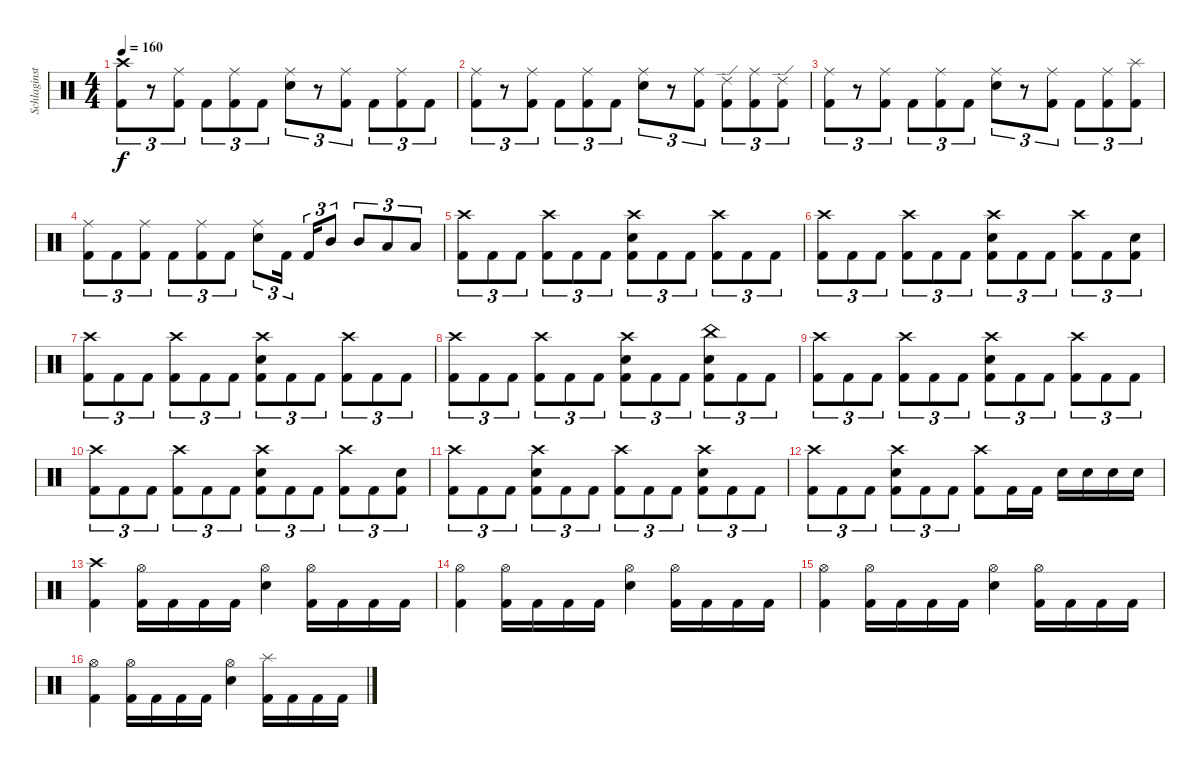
\track ("Schlaginstrumente - Auswahl" "Schlaginst") {instrument percussion}
\staff {score}
\articulation defaults
\ts (4 4)
\tempo 160
\clef neutral
\ks c
("Crash high (hit)" "Kick (hit) 2").8{tu (3 2) dy f} r.8{tu (3 2)} ("Ride (middle)" "Kick (hit) 2").8{tu (3 2)} "Kick (hit) 2".8{tu (3 2)} ("Ride (middle)" "Kick (hit) 2").8{tu (3 2)} "Kick (hit) 2".8{tu (3 2)} ("Ride (middle)" "Snare (hit) 2").8{tu (3 2)} r.8{tu (3 2)} ("Ride (middle)" "Kick (hit) 2").8{tu (3 2)} "Kick (hit) 2".8{tu (3 2)} ("Ride (middle)" "Kick (hit) 2").8{tu (3 2)} "Kick (hit) 2".8{tu (3 2)} |
("Ride (middle)" "Kick (hit) 2").8{tu (3 2)} r.8{tu (3 2)} ("Ride (middle)" "Kick (hit) 2").8{tu (3 2)} "Kick (hit) 2".8{tu (3 2)} ("Ride (middle)" "Kick (hit) 2").8{tu (3 2)} "Kick (hit) 2".8{tu (3 2)} ("Ride (middle)" "Snare (hit) 2").8{tu (3 2)} r.8{tu (3 2)} ("Ride (middle)" "Kick (hit) 2").8{tu (3 2)} ("Ride (edge) 2" "Kick (hit) 2").8{tu (3 2)} ("Ride (middle)" "Kick (hit) 2").8{tu (3 2)} ("Ride (edge) 2" "Kick (hit) 2").8{tu (3 2)} |
("Ride (middle)" "Kick (hit) 2").8{tu (3 2)} r.8{tu (3 2)} ("Ride (middle)" "Kick (hit) 2").8{tu (3 2)} "Kick (hit) 2".8{tu (3 2)} ("Ride (middle)" "Kick (hit) 2").8{tu (3 2)} "Kick (hit) 2".8{tu (3 2)} ("Ride (middle)" "Snare (hit) 2").8{tu (3 2)} r.8{tu (3 2)} ("Ride (middle)" "Kick (hit) 2").8{tu (3 2)} "Kick (hit) 2".8{tu (3 2)} ("Ride (middle)" "Kick (hit) 2").8{tu (3 2)} ("Splash (hit)" "Kick (hit) 2").8{tu (3 2)} |
("Ride (middle)" "Kick (hit) 2").8{tu (3 2)} "Kick (hit) 2".8{tu (3 2)} ("Ride (middle)" "Kick (hit) 2").8{tu (3 2)} "Kick (hit) 2".8{tu (3 2)} ("Ride (middle)" "Kick (hit) 2").8{tu (3 2)} "Kick (hit) 2".8{tu (3 2)} ("Ride (middle)" "Snare (hit) 2").8{tu (3 2)} "Kick (hit) 2".16{tu (3 2) beam splitsecondary} "Kick (hit) 2".16{tu (3 2)} "Mid Tom (hit)".8{tu (3 2)} "Mid Tom (hit)".8{tu (3 2)} "Low Tom (hit)".8{tu (3 2)} "Low Tom (hit)".8{tu (3 2)} |
("Crash high (hit)" "Kick (hit) 2").8{tu (3 2)} "Kick (hit) 2".8{tu (3 2)} "Kick (hit) 2".8{tu (3 2)} ("Crash high (hit)" "Kick (hit) 2").8{tu (3 2)} "Kick (hit) 2".8{tu (3 2)} "Kick (hit) 2".8{tu (3 2)} ("Crash high (hit)" "Snare (hit) 2" "Kick (hit) 2").8{tu (3 2)} "Kick (hit) 2".8{tu (3 2)} "Kick (hit) 2".8{tu (3 2)} ("Crash high (hit)" "Kick (hit) 2").8{tu (3 2)} "Kick (hit) 2".8{tu (3 2)} "Kick (hit) 2".8{tu (3 2)} |
("Crash high (hit)" "Kick (hit) 2").8{tu (3 2)} "Kick (hit) 2".8{tu (3 2)} "Kick (hit) 2".8{tu (3 2)} ("Crash high (hit)" "Kick (hit) 2").8{tu (3 2)} "Kick (hit) 2".8{tu (3 2)} "Kick (hit) 2".8{tu (3 2)} ("Crash high (hit)" "Snare (hit) 2" "Kick (hit) 2").8{tu (3 2)} "Kick (hit) 2".8{tu (3 2)} "Kick (hit) 2".8{tu (3 2)} ("Crash high (hit)" "Kick (hit) 2").8{tu (3 2)} "Kick (hit) 2".8{tu (3 2)} ("Snare (hit) 2" "Kick (hit) 2").8{tu (3 2)} |
("Crash high (hit)" "Kick (hit) 2").8{tu (3 2)} "Kick (hit) 2".8{tu (3 2)} "Kick (hit) 2".8{tu (3 2)} ("Crash high (hit)" "Kick (hit) 2").8{tu (3 2)} "Kick (hit) 2".8{tu (3 2)} "Kick (hit) 2".8{tu (3 2)} ("Crash high (hit)" "Snare (hit) 2" "Kick (hit) 2").8{tu (3 2)} "Kick (hit) 2".8{tu (3 2)} "Kick (hit) 2".8{tu (3 2)} ("Crash high (hit)" "Kick (hit) 2").8{tu (3 2)} "Kick (hit) 2".8{tu (3 2)} "Kick (hit) 2".8{tu (3 2)} |
("Crash high (hit)" "Kick (hit) 2").8{tu (3 2)} "Kick (hit) 2".8{tu (3 2)} "Kick (hit) 2".8{tu (3 2)} ("Crash high (hit)" "Kick (hit) 2").8{tu (3 2)} "Kick (hit) 2".8{tu (3 2)} "Kick (hit) 2".8{tu (3 2)} ("Crash high (hit)" "Snare (hit) 2" "Kick (hit) 2").8{tu (3 2)} "Kick (hit) 2".8{tu (3 2)} "Kick (hit) 2".8{tu (3 2)} ("China (hit)" "Snare (hit) 2" "Kick (hit) 2").8{tu (3 2)} "Kick (hit) 2".8{tu (3 2)} "Kick (hit) 2".8{tu (3 2)} |
("Crash high (hit)" "Kick (hit) 2").8{tu (3 2)} "Kick (hit) 2".8{tu (3 2)} "Kick (hit) 2".8{tu (3 2)} ("Crash high (hit)" "Kick (hit) 2").8{tu (3 2)} "Kick (hit) 2".8{tu (3 2)} "Kick (hit) 2".8{tu (3 2)} ("Crash high (hit)" "Snare (hit) 2" "Kick (hit) 2").8{tu (3 2)} "Kick (hit) 2".8{tu (3 2)} "Kick (hit) 2".8{tu (3 2)} ("Crash high (hit)" "Kick (hit) 2").8{tu (3 2)} "Kick (hit) 2".8{tu (3 2)} "Kick (hit) 2".8{tu (3 2)} |
("Crash high (hit)" "Kick (hit) 2").8{tu (3 2)} "Kick (hit) 2".8{tu (3 2)} "Kick (hit) 2".8{tu (3 2)} ("Crash high (hit)" "Kick (hit) 2").8{tu (3 2)} "Kick (hit) 2".8{tu (3 2)} "Kick (hit) 2".8{tu (3 2)} ("Crash high (hit)" "Snare (hit) 2" "Kick (hit) 2").8{tu (3 2)} "Kick (hit) 2".8{tu (3 2)} "Kick (hit) 2".8{tu (3 2)} ("Crash high (hit)" "Kick (hit) 2").8{tu (3 2)} "Kick (hit) 2".8{tu (3 2)} ("Snare (hit) 2" "Kick (hit) 2").8{tu (3 2)} |
("Crash high (hit)" "Kick (hit) 2").8{tu (3 2)} "Kick (hit) 2".8{tu (3 2)} "Kick (hit) 2".8{tu (3 2)} ("Crash high (hit)" "Snare (hit) 2" "Kick (hit) 2").8{tu (3 2)} "Kick (hit) 2".8{tu (3 2)} "Kick (hit) 2".8{tu (3 2)} ("Crash high (hit)" "Kick (hit) 2").8{tu (3 2)} "Kick (hit) 2".8{tu (3 2)} "Kick (hit) 2".8{tu (3 2)} ("Crash high (hit)" "Snare (hit) 2" "Kick (hit) 2").8{tu (3 2)} "Kick (hit) 2".8{tu (3 2)} "Kick (hit) 2".8{tu (3 2)} |
("Crash high (hit)" "Kick (hit) 2").8{tu (3 2)} "Kick (hit) 2".8{tu (3 2)} "Kick (hit) 2".8{tu (3 2)} ("Crash high (hit)" "Snare (hit) 2" "Kick (hit) 2").8{tu (3 2)} "Kick (hit) 2".8{tu (3 2)} "Kick (hit) 2".8{tu (3 2)} ("Crash high (hit)" "Kick (hit) 2").8 "Kick (hit) 2".16 "Kick (hit) 2".16 "Snare (hit) 2".16 "Snare (hit) 2".16 "Snare (hit) 2".16 "Snare (hit) 2".16 |
("Crash high (hit)" "Kick (hit) 2").4 ("Hi-Hat (open)" "Kick (hit) 2").16 "Kick (hit) 2".16 "Kick (hit) 2".16 "Kick (hit) 2".16 ("Hi-Hat (open)" "Snare (hit) 2").4 ("Hi-Hat (open)" "Kick (hit) 2").16 "Kick (hit) 2".16 "Kick (hit) 2".16 "Kick (hit) 2".16 |
("Hi-Hat (open)" "Kick (hit) 2").4 ("Hi-Hat (open)" "Kick (hit) 2").16 "Kick (hit) 2".16 "Kick (hit) 2".16 "Kick (hit) 2".16 ("Hi-Hat (open)" "Snare (hit) 2").4 ("Hi-Hat (open)" "Kick (hit) 2").16 "Kick (hit) 2".16 "Kick (hit) 2".16 "Kick (hit) 2".16 |
("Hi-Hat (open)" "Kick (hit) 2").4 ("Hi-Hat (open)" "Kick (hit) 2").16 "Kick (hit) 2".16 "Kick (hit) 2".16 "Kick (hit) 2".16 ("Hi-Hat (open)" "Snare (hit) 2").4 ("Hi-Hat (open)" "Kick (hit) 2").16 "Kick (hit) 2".16 "Kick (hit) 2".16 "Kick (hit) 2".16 |
("Hi-Hat (open)" "Kick (hit) 2").4 ("Hi-Hat (open)" "Kick (hit) 2").16 "Kick (hit) 2".16 "Kick (hit) 2".16 "Kick (hit) 2".16 ("Hi-Hat (open)" "Snare (hit) 2").4 ("Splash (hit)" "Kick (hit) 2").16 "Kick (hit) 2".16 "Kick (hit) 2".16 "Kick (hit) 2".16
